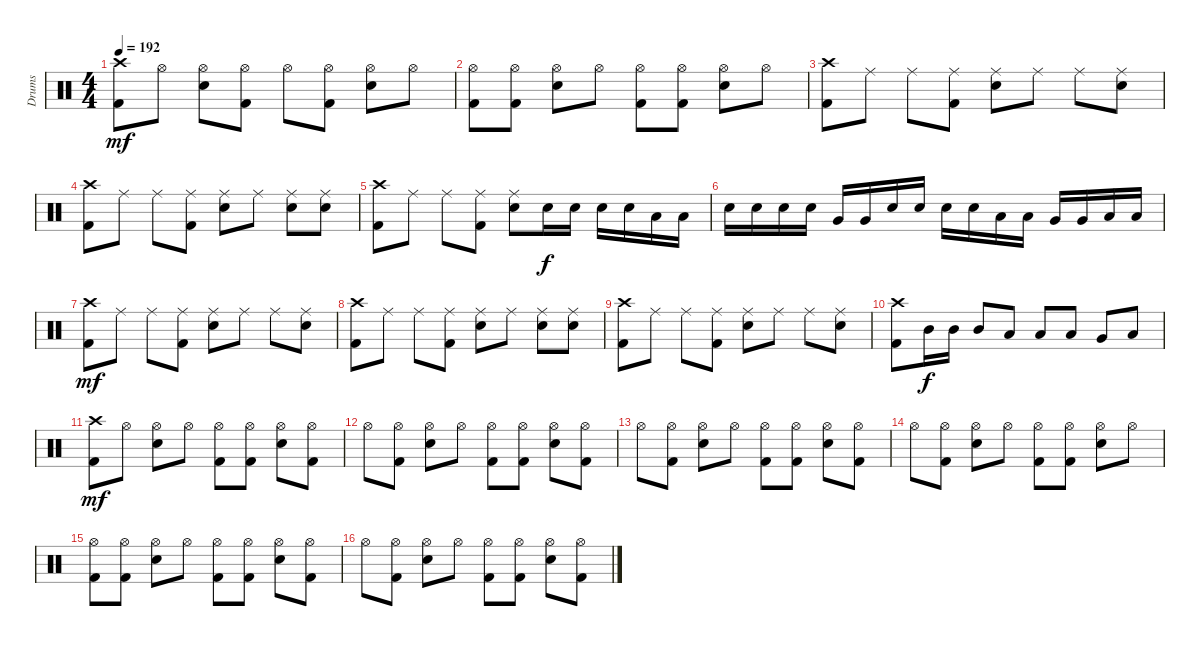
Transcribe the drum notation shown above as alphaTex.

\track ("Drums" "Drums") {instrument percussion}
\staff {score}
\articulation defaults
\ts (4 4)
\tempo 192
\clef neutral
\ks c
("Crash high (hit)" "Kick (hit) 2").8{dy mf} "Hi-Hat (open)".8 ("Hi-Hat (open)" "Snare (hit) 2").8 ("Hi-Hat (open)" "Kick (hit) 2").8 "Hi-Hat (open)".8 ("Hi-Hat (open)" "Kick (hit) 2").8 ("Hi-Hat (open)" "Snare (hit) 2").8 "Hi-Hat (open)".8 |
("Hi-Hat (open)" "Kick (hit) 2").8 ("Hi-Hat (open)" "Kick (hit) 2").8 ("Hi-Hat (open)" "Snare (hit) 2").8 "Hi-Hat (open)".8 ("Hi-Hat (open)" "Kick (hit) 2").8 ("Hi-Hat (open)" "Kick (hit) 2").8 ("Hi-Hat (open)" "Snare (hit) 2").8 "Hi-Hat (open)".8 |
("Crash high (hit)" "Kick (hit) 2").8 "Ride (middle)".8 "Ride (middle)".8 ("Ride (middle)" "Kick (hit) 2").8 ("Ride (middle)" "Snare (hit) 2").8 "Ride (middle)".8 "Ride (middle)".8 ("Ride (middle)" "Snare (hit) 2").8 |
("Crash high (hit)" "Kick (hit) 2").8 "Ride (middle)".8 "Ride (middle)".8 ("Ride (middle)" "Kick (hit) 2").8 ("Ride (middle)" "Snare (hit) 2").8 "Ride (middle)".8 ("Ride (middle)" "Snare (hit) 2").8 ("Ride (middle)" "Snare (hit) 2").8 |
("Crash high (hit)" "Kick (hit) 2").8 "Ride (middle)".8 "Ride (middle)".8 ("Ride (middle)" "Kick (hit) 2").8 ("Ride (middle)" "Snare (hit) 2").8 "Snare (hit) 2".16{dy f} "Snare (hit) 2".16 "Snare (hit) 2".16 "Snare (hit) 2".16 "Low Tom (hit)".16 "Low Tom (hit)".16 |
"Snare (hit) 2".16 "Snare (hit) 2".16 "Snare (hit) 2".16 "Snare (hit) 2".16 "Very Low Tom (hit)".16 "Very Low Tom (hit)".16 "Snare (hit) 2".16 "Snare (hit) 2".16 "Snare (hit) 2".16 "Snare (hit) 2".16 "Low Tom (hit)".16 "Low Tom (hit)".16 "Very Low Tom (hit)".16 "Very Low Tom (hit)".16 "Low Floor Tom (hit)".16 "Low Floor Tom (hit)".16 |
("Crash high (hit)" "Kick (hit) 2").8{dy mf} "Ride (middle)".8 "Ride (middle)".8 ("Ride (middle)" "Kick (hit) 2").8 ("Ride (middle)" "Snare (hit) 2").8 "Ride (middle)".8 "Ride (middle)".8 ("Ride (middle)" "Snare (hit) 2").8 |
("Crash high (hit)" "Kick (hit) 2").8 "Ride (middle)".8 "Ride (middle)".8 ("Ride (middle)" "Kick (hit) 2").8 ("Ride (middle)" "Snare (hit) 2").8 "Ride (middle)".8 ("Ride (middle)" "Snare (hit) 2").8 ("Ride (middle)" "Snare (hit) 2").8 |
("Crash high (hit)" "Kick (hit) 2").8 "Ride (middle)".8 "Ride (middle)".8 ("Ride (middle)" "Kick (hit) 2").8 ("Ride (middle)" "Snare (hit) 2").8 "Ride (middle)".8 "Ride (middle)".8 ("Ride (middle)" "Snare (hit) 2").8 |
("Crash high (hit)" "Kick (hit) 2").8 "Mid Tom (hit)".16{dy f} "Mid Tom (hit)".16 "Mid Tom (hit)".8 "Low Tom (hit)".8 "Low Tom (hit)".8 "Low Tom (hit)".8 "Very Low Tom (hit)".8 "Low Floor Tom (hit)".8 |
("Crash high (hit)" "Kick (hit) 2").8{dy mf} "Hi-Hat (open)".8 ("Hi-Hat (open)" "Snare (hit) 2").8 "Hi-Hat (open)".8 ("Hi-Hat (open)" "Kick (hit) 2").8 ("Hi-Hat (open)" "Kick (hit) 2").8 ("Hi-Hat (open)" "Snare (hit) 2").8 ("Hi-Hat (open)" "Kick (hit) 2").8 |
"Hi-Hat (open)".8 ("Hi-Hat (open)" "Kick (hit) 2").8 ("Hi-Hat (open)" "Snare (hit) 2").8 "Hi-Hat (open)".8 ("Hi-Hat (open)" "Kick (hit) 2").8 ("Hi-Hat (open)" "Kick (hit) 2").8 ("Hi-Hat (open)" "Snare (hit) 2").8 ("Hi-Hat (open)" "Kick (hit) 2").8 |
"Hi-Hat (open)".8 ("Hi-Hat (open)" "Kick (hit) 2").8 ("Hi-Hat (open)" "Snare (hit) 2").8 "Hi-Hat (open)".8 ("Hi-Hat (open)" "Kick (hit) 2").8 ("Hi-Hat (open)" "Kick (hit) 2").8 ("Hi-Hat (open)" "Snare (hit) 2").8 ("Hi-Hat (open)" "Kick (hit) 2").8 |
"Hi-Hat (open)".8 ("Hi-Hat (open)" "Kick (hit) 2").8 ("Hi-Hat (open)" "Snare (hit) 2").8 "Hi-Hat (open)".8 ("Hi-Hat (open)" "Kick (hit) 2").8 ("Hi-Hat (open)" "Kick (hit) 2").8 ("Hi-Hat (open)" "Snare (hit) 2").8 "Hi-Hat (open)".8 |
("Hi-Hat (open)" "Kick (hit) 2").8 ("Hi-Hat (open)" "Kick (hit) 2").8 ("Hi-Hat (open)" "Snare (hit) 2").8 "Hi-Hat (open)".8 ("Hi-Hat (open)" "Kick (hit) 2").8 ("Hi-Hat (open)" "Kick (hit) 2").8 ("Hi-Hat (open)" "Snare (hit) 2").8 ("Hi-Hat (open)" "Kick (hit) 2").8 |
"Hi-Hat (open)".8 ("Hi-Hat (open)" "Kick (hit) 2").8 ("Hi-Hat (open)" "Snare (hit) 2").8 "Hi-Hat (open)".8 ("Hi-Hat (open)" "Kick (hit) 2").8 ("Hi-Hat (open)" "Kick (hit) 2").8 ("Hi-Hat (open)" "Snare (hit) 2").8 ("Hi-Hat (open)" "Kick (hit) 2").8
